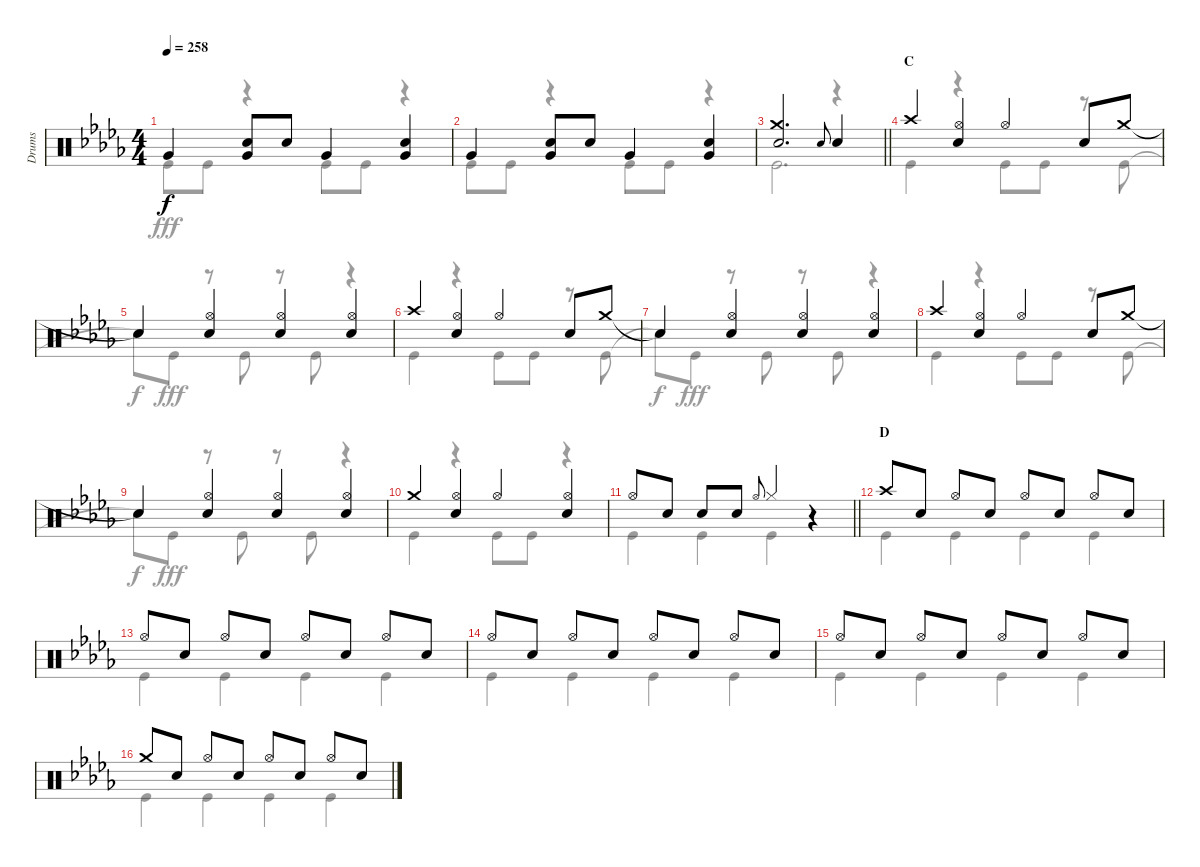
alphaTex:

\track ("Drums" "Drums") {instrument percussion}
\staff {score}
\articulation defaults
\voice
\ts (4 4)
\tempo 258
\clef neutral
\ks db "Very Low Tom (hit)".4{dy f}
("Snare (hit) 2" "Very Low Tom (hit)").8 "Snare (hit) 2".8 "Very Low Tom (hit)".4 ("Snare (hit) 2" "Very Low Tom (hit)").4 |
"Very Low Tom (hit)".4 ("Snare (hit) 2" "Very Low Tom (hit)").8 "Snare (hit) 2".8 "Very Low Tom (hit)".4 ("Snare (hit) 2" "Very Low Tom (hit)").4 |
\barLineRight lightlight
("Crash medium (hit)" "Snare (hit) 2").2{d} "Snare (hit) 2".8{gr onbeat} "Snare (hit) 2".4 |
\section ("" "C")
"Crash high (hit)".4 ("Hi-Hat (open)" "Snare (hit) 2").4 "Hi-Hat (open)".4 "Snare (hit) 2".8 "Crash medium (hit)".8 |
"Snare (hit)"{t}.4 ("Hi-Hat (open)" "Snare (hit) 2").4 ("Hi-Hat (open)" "Snare (hit) 2").4 ("Hi-Hat (open)" "Snare (hit) 2").4 |
"Crash high (hit)".4 ("Hi-Hat (open)" "Snare (hit) 2").4 "Hi-Hat (open)".4 "Snare (hit) 2".8 "Crash medium (hit)".8 |
"Snare (hit)"{t}.4 ("Hi-Hat (open)" "Snare (hit) 2").4 ("Hi-Hat (open)" "Snare (hit) 2").4 ("Hi-Hat (open)" "Snare (hit) 2").4 |
"Crash high (hit)".4 ("Hi-Hat (open)" "Snare (hit) 2").4 "Hi-Hat (open)".4 "Snare (hit) 2".8 "Crash medium (hit)".8 |
"Snare (hit)"{t}.4 ("Hi-Hat (open)" "Snare (hit) 2").4 ("Hi-Hat (open)" "Snare (hit) 2").4 ("Hi-Hat (open)" "Snare (hit) 2").4 |
"Crash medium (hit)".4 ("Hi-Hat (open)" "Snare (hit) 2").4 "Hi-Hat (open)".4 ("Hi-Hat (open)" "Snare (hit) 2").4 |
\barLineRight lightlight "Hi-Hat (open)".8 "Snare (hit) 2".8 "Snare (hit) 2".8 "Snare (hit) 2".8 "Hi-Hat (open)"{sl}.8{gr onbeat} "Hi-Hat (closed)".4
r.4 |
\section ("" "D")
"Crash high (hit)".8 "Snare (hit) 2".8 "Hi-Hat (open)".8 "Snare (hit) 2".8 "Hi-Hat (open)".8 "Snare (hit) 2".8 "Hi-Hat (open)".8 "Snare (hit) 2".8 |
"Hi-Hat (open)".8 "Snare (hit) 2".8 "Hi-Hat (open)".8 "Snare (hit) 2".8 "Hi-Hat (open)".8 "Snare (hit) 2".8 "Hi-Hat (open)".8 "Snare (hit) 2".8 |
"Hi-Hat (open)".8 "Snare (hit) 2".8 "Hi-Hat (open)".8 "Snare (hit) 2".8 "Hi-Hat (open)".8 "Snare (hit) 2".8 "Hi-Hat (open)".8 "Snare (hit) 2".8 |
"Hi-Hat (open)".8 "Snare (hit) 2".8 "Hi-Hat (open)".8 "Snare (hit) 2".8 "Hi-Hat (open)".8 "Snare (hit) 2".8 "Hi-Hat (open)".8 "Snare (hit) 2".8 |
"Crash medium (hit)".8 "Snare (hit) 2".8 "Hi-Hat (open)".8 "Snare (hit) 2".8 "Hi-Hat (open)".8 "Snare (hit) 2".8 "Hi-Hat (open)".8 "Snare (hit) 2".8
\voice
\clef neutral
\ottava regular
\simile none
\ks db "Kick (hit)".8{dy fff} "Kick (hit)".8
r.4 "Kick (hit)".8 "Kick (hit)".8 r.4 |
"Kick (hit)".8 "Kick (hit)".8 r.4 "Kick (hit)".8 "Kick (hit)".8 r.4 |
\barLineRight lightlight "Kick (hit)".2{d}
r.4 |
"Kick (hit)".4 r.4 "Kick (hit)".8 "Kick (hit)".8 r.8 "Kick (hit)".8 |
"Snare (hit)"{t}.8{dy f} "Kick (hit)".8{dy fff} r.8 "Kick (hit)".8 r.8 "Kick (hit)".8 r.4 |
"Kick (hit)".4 r.4 "Kick (hit)".8 "Kick (hit)".8 r.8 "Kick (hit)".8 |
"Snare (hit)"{t}.8{dy f} "Kick (hit)".8{dy fff} r.8 "Kick (hit)".8 r.8 "Kick (hit)".8 r.4 |
"Kick (hit)".4 r.4 "Kick (hit)".8 "Kick (hit)".8 r.8 "Kick (hit)".8 |
"Snare (hit)"{t}.8{dy f} "Kick (hit)".8{dy fff} r.8 "Kick (hit)".8 r.8 "Kick (hit)".8 r.4 |
"Kick (hit)".4 r.4 "Kick (hit)".8 "Kick (hit)".8 r.4 |
\barLineRight lightlight "Kick (hit)".4 "Kick (hit)".4 "Kick (hit)".4
r.4 |
"Kick (hit)".4 "Kick (hit)".4 "Kick (hit)".4 "Kick (hit)".4 |
"Kick (hit)".4 "Kick (hit)".4 "Kick (hit)".4 "Kick (hit)".4 |
"Kick (hit)".4 "Kick (hit)".4 "Kick (hit)".4 "Kick (hit)".4 |
"Kick (hit)".4 "Kick (hit)".4 "Kick (hit)".4 "Kick (hit)".4 |
"Kick (hit)".4 "Kick (hit)".4 "Kick (hit)".4 "Kick (hit)".4
